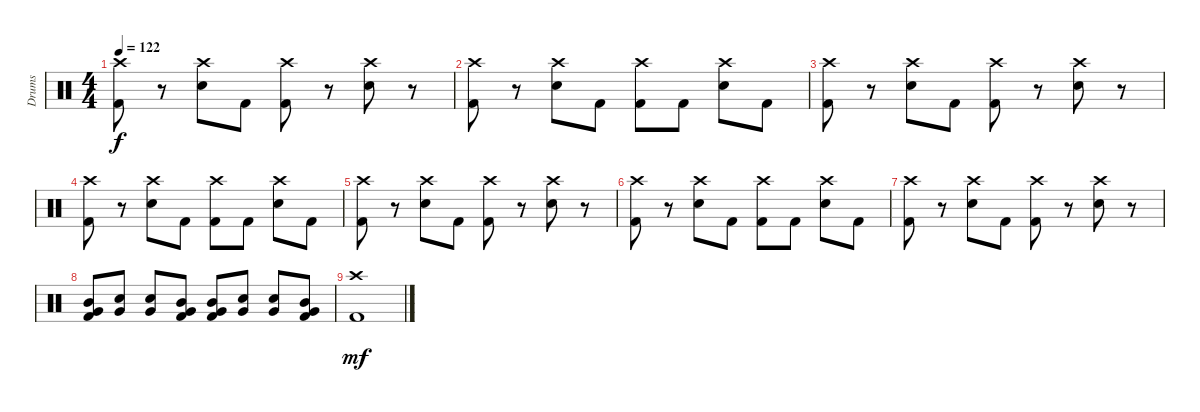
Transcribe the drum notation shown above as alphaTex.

\track ("Drums" "Drums") {instrument percussion}
\staff {score}
\articulation defaults
\ts (4 4)
\tempo 122
\clef neutral
\ks c
("Crash high (hit)" "Kick (hit) 2").8{dy f} r.8 ("Crash high (hit)" "Electric Snare (hit)").8 "Kick (hit) 2".8 ("Crash high (hit)" "Kick (hit) 2").8 r.8 ("Crash high (hit)" "Electric Snare (hit)").8 r.8 |
("Crash high (hit)" "Kick (hit) 2").8 r.8 ("Crash high (hit)" "Electric Snare (hit)").8 "Kick (hit) 2".8 ("Crash high (hit)" "Kick (hit) 2").8 "Kick (hit) 2".8 ("Crash high (hit)" "Electric Snare (hit)").8 "Kick (hit) 2".8 |
("Crash high (hit)" "Kick (hit) 2").8 r.8 ("Crash high (hit)" "Electric Snare (hit)").8 "Kick (hit) 2".8 ("Crash high (hit)" "Kick (hit) 2").8 r.8 ("Crash high (hit)" "Electric Snare (hit)").8 r.8 |
("Crash high (hit)" "Kick (hit) 2").8 r.8 ("Crash high (hit)" "Electric Snare (hit)").8 "Kick (hit) 2".8 ("Crash high (hit)" "Kick (hit) 2").8 "Kick (hit) 2".8 ("Crash high (hit)" "Electric Snare (hit)").8 "Kick (hit) 2".8 |
("Crash high (hit)" "Kick (hit) 2").8 r.8 ("Crash high (hit)" "Electric Snare (hit)").8 "Kick (hit) 2".8 ("Crash high (hit)" "Kick (hit) 2").8 r.8 ("Crash high (hit)" "Electric Snare (hit)").8 r.8 |
("Crash high (hit)" "Kick (hit) 2").8 r.8 ("Crash high (hit)" "Electric Snare (hit)").8 "Kick (hit) 2".8 ("Crash high (hit)" "Kick (hit) 2").8 "Kick (hit) 2".8 ("Crash high (hit)" "Electric Snare (hit)").8 "Kick (hit) 2".8 |
("Crash high (hit)" "Kick (hit) 2").8 r.8 ("Crash high (hit)" "Electric Snare (hit)").8 "Kick (hit) 2".8 ("Crash high (hit)" "Kick (hit) 2").8 r.8 ("Crash high (hit)" "Electric Snare (hit)").8 r.8 |
("Very Low Tom (hit)" "Mid Tom (hit)" "Kick (hit) 2").8 ("Very Low Tom (hit)" "Electric Snare (hit)").8 ("Very Low Tom (hit)" "Electric Snare (hit)").8 ("Very Low Tom (hit)" "Mid Tom (hit)" "Kick (hit) 2").8 ("Very Low Tom (hit)" "Mid Tom (hit)" "Kick (hit) 2").8 ("Very Low Tom (hit)" "Electric Snare (hit)").8 ("Very Low Tom (hit)" "Electric Snare (hit)").8 ("Very Low Tom (hit)" "Mid Tom (hit)" "Kick (hit) 2").8 |
("Crash high (hit)" "Kick (hit) 2").1{dy mf}
